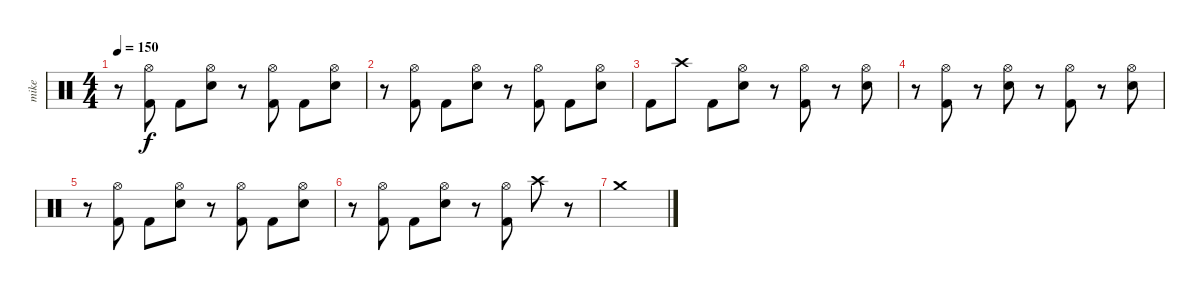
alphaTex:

\track ("mike" "mike") {instrument percussion}
\staff {score}
\articulation defaults
\ts (4 4)
\tempo 150
\clef neutral
\ks c
r.8{dy f} ("Hi-Hat (open)" "Kick (hit) 2").8 "Kick (hit) 2".8 ("Hi-Hat (open)" "Electric Snare (hit)").8 r.8 ("Hi-Hat (open)" "Kick (hit) 2").8 "Kick (hit) 2".8 ("Hi-Hat (open)" "Electric Snare (hit)").8 |
r.8 ("Hi-Hat (open)" "Kick (hit) 2").8 "Kick (hit) 2".8 ("Hi-Hat (open)" "Electric Snare (hit)").8 r.8 ("Hi-Hat (open)" "Kick (hit) 2").8 "Kick (hit) 2".8 ("Hi-Hat (open)" "Electric Snare (hit)").8 |
"Kick (hit) 2".8 "Crash high (hit)".8 "Kick (hit) 2".8 ("Hi-Hat (open)" "Electric Snare (hit)").8 r.8 ("Hi-Hat (open)" "Kick (hit) 2").8 r.8 ("Hi-Hat (open)" "Electric Snare (hit)").8 |
r.8 ("Hi-Hat (open)" "Kick (hit) 2").8 r.8 ("Hi-Hat (open)" "Electric Snare (hit)").8 r.8 ("Hi-Hat (open)" "Kick (hit) 2").8 r.8 ("Hi-Hat (open)" "Electric Snare (hit)").8 |
r.8 ("Hi-Hat (open)" "Kick (hit) 2").8 "Kick (hit) 2".8 ("Hi-Hat (open)" "Electric Snare (hit)").8 r.8 ("Hi-Hat (open)" "Kick (hit) 2").8 "Kick (hit) 2".8 ("Hi-Hat (open)" "Electric Snare (hit)").8 |
r.8 ("Hi-Hat (open)" "Kick (hit) 2").8 "Kick (hit) 2".8 ("Hi-Hat (open)" "Electric Snare (hit)").8 r.8 ("Hi-Hat (open)" "Kick (hit) 2").8 "Crash high (hit)".8 r.8 |
"Crash medium (hit)".1
